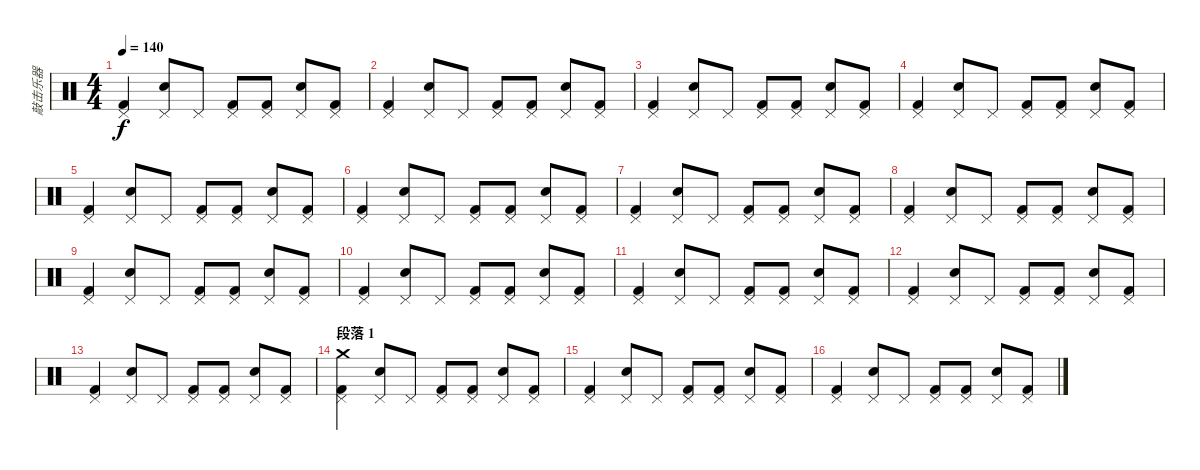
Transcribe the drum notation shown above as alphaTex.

\track ("敲击乐器" "敲击乐器") {instrument percussion}
\staff {score}
\articulation defaults
\ts (4 4)
\tempo 140
\clef neutral
\ks c
("Kick (hit) 2" "Pedal Hi-Hat (hit)").4{dy f} ("Snare (hit) 2" "Pedal Hi-Hat (hit)").8 "Pedal Hi-Hat (hit)".8 ("Kick (hit) 2" "Pedal Hi-Hat (hit)").8 ("Kick (hit) 2" "Pedal Hi-Hat (hit)").8 ("Snare (hit) 2" "Pedal Hi-Hat (hit)").8 ("Kick (hit) 2" "Pedal Hi-Hat (hit)").8 |
("Kick (hit) 2" "Pedal Hi-Hat (hit)").4 ("Snare (hit) 2" "Pedal Hi-Hat (hit)").8 "Pedal Hi-Hat (hit)".8 ("Kick (hit) 2" "Pedal Hi-Hat (hit)").8 ("Kick (hit) 2" "Pedal Hi-Hat (hit)").8 ("Snare (hit) 2" "Pedal Hi-Hat (hit)").8 ("Kick (hit) 2" "Pedal Hi-Hat (hit)").8 |
("Kick (hit) 2" "Pedal Hi-Hat (hit)").4 ("Snare (hit) 2" "Pedal Hi-Hat (hit)").8 "Pedal Hi-Hat (hit)".8 ("Kick (hit) 2" "Pedal Hi-Hat (hit)").8 ("Kick (hit) 2" "Pedal Hi-Hat (hit)").8 ("Snare (hit) 2" "Pedal Hi-Hat (hit)").8 ("Kick (hit) 2" "Pedal Hi-Hat (hit)").8 |
("Kick (hit) 2" "Pedal Hi-Hat (hit)").4 ("Snare (hit) 2" "Pedal Hi-Hat (hit)").8 "Pedal Hi-Hat (hit)".8 ("Kick (hit) 2" "Pedal Hi-Hat (hit)").8 ("Kick (hit) 2" "Pedal Hi-Hat (hit)").8 ("Snare (hit) 2" "Pedal Hi-Hat (hit)").8 ("Kick (hit) 2" "Pedal Hi-Hat (hit)").8 |
("Kick (hit) 2" "Pedal Hi-Hat (hit)").4 ("Snare (hit) 2" "Pedal Hi-Hat (hit)").8 "Pedal Hi-Hat (hit)".8 ("Kick (hit) 2" "Pedal Hi-Hat (hit)").8 ("Kick (hit) 2" "Pedal Hi-Hat (hit)").8 ("Snare (hit) 2" "Pedal Hi-Hat (hit)").8 ("Kick (hit) 2" "Pedal Hi-Hat (hit)").8 |
("Kick (hit) 2" "Pedal Hi-Hat (hit)").4 ("Snare (hit) 2" "Pedal Hi-Hat (hit)").8 "Pedal Hi-Hat (hit)".8 ("Kick (hit) 2" "Pedal Hi-Hat (hit)").8 ("Kick (hit) 2" "Pedal Hi-Hat (hit)").8 ("Snare (hit) 2" "Pedal Hi-Hat (hit)").8 ("Kick (hit) 2" "Pedal Hi-Hat (hit)").8 |
("Kick (hit) 2" "Pedal Hi-Hat (hit)").4 ("Snare (hit) 2" "Pedal Hi-Hat (hit)").8 "Pedal Hi-Hat (hit)".8 ("Kick (hit) 2" "Pedal Hi-Hat (hit)").8 ("Kick (hit) 2" "Pedal Hi-Hat (hit)").8 ("Snare (hit) 2" "Pedal Hi-Hat (hit)").8 ("Kick (hit) 2" "Pedal Hi-Hat (hit)").8 |
("Kick (hit) 2" "Pedal Hi-Hat (hit)").4 ("Snare (hit) 2" "Pedal Hi-Hat (hit)").8 "Pedal Hi-Hat (hit)".8 ("Kick (hit) 2" "Pedal Hi-Hat (hit)").8 ("Kick (hit) 2" "Pedal Hi-Hat (hit)").8 ("Snare (hit) 2" "Pedal Hi-Hat (hit)").8 ("Kick (hit) 2" "Pedal Hi-Hat (hit)").8 |
("Kick (hit) 2" "Pedal Hi-Hat (hit)").4 ("Snare (hit) 2" "Pedal Hi-Hat (hit)").8 "Pedal Hi-Hat (hit)".8 ("Kick (hit) 2" "Pedal Hi-Hat (hit)").8 ("Kick (hit) 2" "Pedal Hi-Hat (hit)").8 ("Snare (hit) 2" "Pedal Hi-Hat (hit)").8 ("Kick (hit) 2" "Pedal Hi-Hat (hit)").8 |
("Kick (hit) 2" "Pedal Hi-Hat (hit)").4 ("Snare (hit) 2" "Pedal Hi-Hat (hit)").8 "Pedal Hi-Hat (hit)".8 ("Kick (hit) 2" "Pedal Hi-Hat (hit)").8 ("Kick (hit) 2" "Pedal Hi-Hat (hit)").8 ("Snare (hit) 2" "Pedal Hi-Hat (hit)").8 ("Kick (hit) 2" "Pedal Hi-Hat (hit)").8 |
("Kick (hit) 2" "Pedal Hi-Hat (hit)").4 ("Snare (hit) 2" "Pedal Hi-Hat (hit)").8 "Pedal Hi-Hat (hit)".8 ("Kick (hit) 2" "Pedal Hi-Hat (hit)").8 ("Kick (hit) 2" "Pedal Hi-Hat (hit)").8 ("Snare (hit) 2" "Pedal Hi-Hat (hit)").8 ("Kick (hit) 2" "Pedal Hi-Hat (hit)").8 |
("Kick (hit) 2" "Pedal Hi-Hat (hit)").4 ("Snare (hit) 2" "Pedal Hi-Hat (hit)").8 "Pedal Hi-Hat (hit)".8 ("Kick (hit) 2" "Pedal Hi-Hat (hit)").8 ("Kick (hit) 2" "Pedal Hi-Hat (hit)").8 ("Snare (hit) 2" "Pedal Hi-Hat (hit)").8 ("Kick (hit) 2" "Pedal Hi-Hat (hit)").8 |
("Kick (hit) 2" "Pedal Hi-Hat (hit)").4 ("Snare (hit) 2" "Pedal Hi-Hat (hit)").8 "Pedal Hi-Hat (hit)".8 ("Kick (hit) 2" "Pedal Hi-Hat (hit)").8 ("Kick (hit) 2" "Pedal Hi-Hat (hit)").8 ("Snare (hit) 2" "Pedal Hi-Hat (hit)").8 ("Kick (hit) 2" "Pedal Hi-Hat (hit)").8 |
\section ("" "段落 1")
("Kick (hit) 2" "Pedal Hi-Hat (hit)" "Crash medium (hit)").4 ("Snare (hit) 2" "Pedal Hi-Hat (hit)").8 "Pedal Hi-Hat (hit)".8 ("Kick (hit) 2" "Pedal Hi-Hat (hit)").8 ("Kick (hit) 2" "Pedal Hi-Hat (hit)").8 ("Snare (hit) 2" "Pedal Hi-Hat (hit)").8 ("Kick (hit) 2" "Pedal Hi-Hat (hit)").8 |
("Kick (hit) 2" "Pedal Hi-Hat (hit)").4 ("Snare (hit) 2" "Pedal Hi-Hat (hit)").8 "Pedal Hi-Hat (hit)".8 ("Kick (hit) 2" "Pedal Hi-Hat (hit)").8 ("Kick (hit) 2" "Pedal Hi-Hat (hit)").8 ("Snare (hit) 2" "Pedal Hi-Hat (hit)").8 ("Kick (hit) 2" "Pedal Hi-Hat (hit)").8 |
("Kick (hit) 2" "Pedal Hi-Hat (hit)").4 ("Snare (hit) 2" "Pedal Hi-Hat (hit)").8 "Pedal Hi-Hat (hit)".8 ("Kick (hit) 2" "Pedal Hi-Hat (hit)").8 ("Kick (hit) 2" "Pedal Hi-Hat (hit)").8 ("Snare (hit) 2" "Pedal Hi-Hat (hit)").8 ("Kick (hit) 2" "Pedal Hi-Hat (hit)").8
